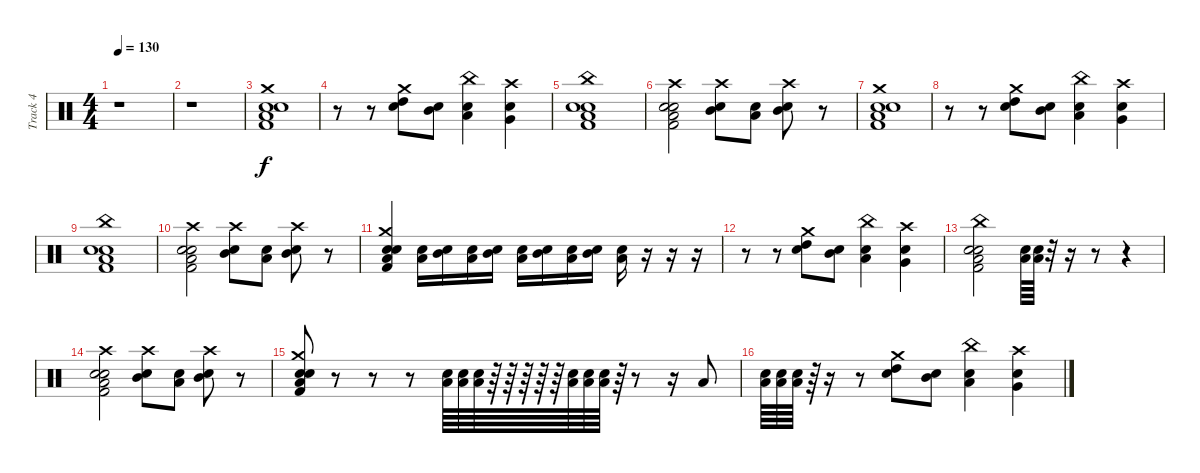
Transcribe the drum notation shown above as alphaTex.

\track ("Track 4" "Track 4") {instrument percussion}
\staff {score}
\articulation defaults
\ts (4 4)
\tempo 130
\clef neutral
\ks c
r.1{dy f} |
r.1 |
("Low Tom (hit)" "Snare (hit) 2" "Crash medium (hit)" "Electric Snare (hit)" "Kick (hit) 2").1 |
r.8 r.8 ("High Tom (hit)" "Snare (hit) 2" "Crash medium (hit)").8 ("Mid Tom (hit)" "Snare (hit) 2").8 ("Low Tom (hit)" "Snare (hit) 2" "China (hit)").4 ("Very Low Tom (hit)" "Snare (hit) 2" "Crash high (hit)").4 |
("Low Tom (hit)" "Snare (hit) 2" "China (hit)" "Electric Snare (hit)" "Kick (hit) 2").1 |
("Low Tom (hit)" "Snare (hit) 2" "Crash high (hit)" "Electric Snare (hit)" "Kick (hit) 2").2 ("Mid Tom (hit)" "Snare (hit) 2" "Crash high (hit)").8 ("Low Tom (hit)" "Snare (hit) 2").8 ("Mid Tom (hit)" "Snare (hit) 2" "Crash high (hit)").8 r.8 |
("Low Tom (hit)" "Snare (hit) 2" "Crash medium (hit)" "Electric Snare (hit)" "Kick (hit) 2").1 |
r.8 r.8 ("High Tom (hit)" "Snare (hit) 2" "Crash medium (hit)").8 ("Mid Tom (hit)" "Snare (hit) 2").8 ("Low Tom (hit)" "Snare (hit) 2" "China (hit)").4 ("Very Low Tom (hit)" "Snare (hit) 2" "Crash high (hit)").4 |
("Low Tom (hit)" "Snare (hit) 2" "China (hit)" "Electric Snare (hit)" "Kick (hit) 2").1 |
("Low Tom (hit)" "Snare (hit) 2" "Crash high (hit)" "Electric Snare (hit)" "Kick (hit) 2").2 ("Mid Tom (hit)" "Snare (hit) 2" "Crash high (hit)").8 ("Low Tom (hit)" "Snare (hit) 2").8 ("Mid Tom (hit)" "Snare (hit) 2" "Crash high (hit)").8 r.8 |
("Low Tom (hit)" "Snare (hit) 2" "Crash medium (hit)" "Electric Snare (hit)" "Kick (hit) 2").4 ("Low Tom (hit)" "Electric Snare (hit)").16 ("Mid Tom (hit)" "Electric Snare (hit)").16 ("Low Tom (hit)" "Electric Snare (hit)").16 ("Mid Tom (hit)" "Electric Snare (hit)").16 ("Low Tom (hit)" "Electric Snare (hit)").16 ("Mid Tom (hit)" "Electric Snare (hit)").16 ("Low Tom (hit)" "Electric Snare (hit)").16 ("Mid Tom (hit)" "Electric Snare (hit)").16 ("Low Tom (hit)" "Electric Snare (hit)").16 r.16 r.16 r.16 |
r.8 r.8 ("High Tom (hit)" "Snare (hit) 2" "Crash medium (hit)").8 ("Mid Tom (hit)" "Snare (hit) 2").8 ("Low Tom (hit)" "Snare (hit) 2" "China (hit)").4 ("Very Low Tom (hit)" "Snare (hit) 2" "Crash high (hit)").4 |
("Low Tom (hit)" "Snare (hit) 2" "China (hit)" "Electric Snare (hit)" "Kick (hit) 2").2 ("Electric Snare (hit)" "Low Tom (hit)").64 ("Electric Snare (hit)" "Low Tom (hit)").64 r.32 r.16 r.8 r.4 |
("Low Tom (hit)" "Snare (hit) 2" "Crash high (hit)" "Electric Snare (hit)" "Kick (hit) 2").2 ("Mid Tom (hit)" "Snare (hit) 2" "Crash high (hit)").8 ("Low Tom (hit)" "Snare (hit) 2").8 ("Mid Tom (hit)" "Snare (hit) 2" "Crash high (hit)").8 r.8 |
("Low Tom (hit)" "Snare (hit) 2" "Crash medium (hit)" "Electric Snare (hit)" "Kick (hit) 2").8 r.8 r.8 r.8 ("Low Tom (hit)" "Electric Snare (hit)").64 ("Low Tom (hit)" "Electric Snare (hit)").64 ("Low Tom (hit)" "Electric Snare (hit)").64 r.64 r.64 r.64 r.64 r.64 ("Low Tom (hit)" "Electric Snare (hit)").64 ("Low Tom (hit)" "Electric Snare (hit)").64 ("Low Tom (hit)" "Electric Snare (hit)").64 r.64 r.8 r.16 "Low Floor Tom (hit)".8 |
("Low Tom (hit)" "Electric Snare (hit)").64 ("Low Tom (hit)" "Electric Snare (hit)").64 ("Low Tom (hit)" "Electric Snare (hit)").64 r.64 r.16 r.8 ("High Tom (hit)" "Snare (hit) 2" "Crash medium (hit)").8 ("Mid Tom (hit)" "Snare (hit) 2").8 ("Low Tom (hit)" "Snare (hit) 2" "China (hit)").4 ("Very Low Tom (hit)" "Snare (hit) 2" "Crash high (hit)").4
